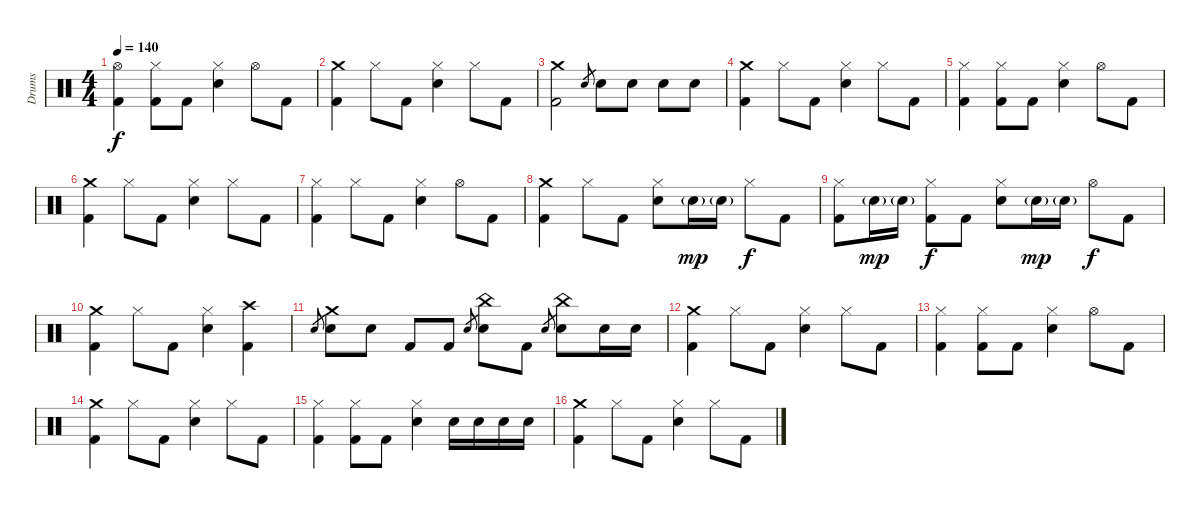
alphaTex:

\track ("Drums" "Drums") {instrument percussion}
\staff {score}
\articulation defaults
\ts (4 4)
\tempo 140
\clef neutral
\ks c
("Hi-Hat (open)" "Kick (hit) 2").4{dy f} ("Hi-Hat (closed)" "Kick (hit) 2").8 "Kick (hit) 2".8 ("Hi-Hat (closed)" "Snare (hit) 2").4 "Hi-Hat (open)".8 "Kick (hit) 2".8 |
("Crash medium (hit)" "Kick (hit) 2").4 "Hi-Hat (closed)".8 "Kick (hit) 2".8 ("Hi-Hat (closed)" "Snare (hit) 2").4 "Hi-Hat (closed)".8 "Kick (hit) 2".8 |
("Crash medium (hit)" "Kick (hit) 2").2 "Snare (hit) 2".8{gr} "Snare (hit) 2".8 "Snare (hit) 2".8 "Snare (hit) 2".8 "Snare (hit) 2".8 |
("Crash medium (hit)" "Kick (hit) 2").4 "Hi-Hat (closed)".8 "Kick (hit) 2".8 ("Hi-Hat (closed)" "Snare (hit) 2").4 "Hi-Hat (closed)".8 "Kick (hit) 2".8 |
("Hi-Hat (closed)" "Kick (hit) 2").4 ("Hi-Hat (closed)" "Kick (hit) 2").8 "Kick (hit) 2".8 ("Hi-Hat (closed)" "Snare (hit) 2").4 "Hi-Hat (open)".8 "Kick (hit) 2".8 |
("Crash medium (hit)" "Kick (hit) 2").4 "Hi-Hat (closed)".8 "Kick (hit) 2".8 ("Hi-Hat (closed)" "Snare (hit) 2").4 "Hi-Hat (closed)".8 "Kick (hit) 2".8 |
("Hi-Hat (closed)" "Kick (hit) 2").4 "Hi-Hat (closed)".8 "Kick (hit) 2".8 ("Hi-Hat (closed)" "Snare (hit) 2").4 "Hi-Hat (open)".8 "Kick (hit) 2".8 |
("Crash medium (hit)" "Kick (hit) 2").4 "Hi-Hat (closed)".8 "Kick (hit) 2".8 ("Hi-Hat (closed)" "Snare (hit) 2").8 "Snare (hit) 2"{g}.16{dy mp} "Snare (hit) 2"{g}.16 "Hi-Hat (closed)".8{dy f} "Kick (hit) 2".8 |
("Hi-Hat (closed)" "Kick (hit) 2").8 "Snare (hit) 2"{g}.16{dy mp} "Snare (hit) 2"{g}.16 ("Hi-Hat (closed)" "Kick (hit) 2").8{dy f} "Kick (hit) 2".8 ("Hi-Hat (closed)" "Snare (hit) 2").8 "Snare (hit) 2"{g}.16{dy mp} "Snare (hit) 2"{g}.16 "Hi-Hat (open)".8{dy f} "Kick (hit) 2".8 |
("Crash medium (hit)" "Kick (hit) 2").4 "Hi-Hat (closed)".8 "Kick (hit) 2".8 ("Hi-Hat (closed)" "Snare (hit) 2").4 ("Crash high (hit)" "Kick (hit) 2").4 |
"Snare (hit) 2".8{gr} ("Crash medium (hit)" "Snare (hit) 2").8 "Snare (hit) 2".8 "Kick (hit) 2".8 "Kick (hit) 2".8 "Snare (hit) 2".8{gr} ("China (hit)" "Snare (hit) 2").8 "Kick (hit) 2".8 "Snare (hit) 2".8{gr} ("China (hit)" "Snare (hit) 2").8 "Snare (hit) 2".16 "Snare (hit) 2".16 |
("Crash medium (hit)" "Kick (hit) 2").4 "Hi-Hat (closed)".8 "Kick (hit) 2".8 ("Hi-Hat (closed)" "Snare (hit) 2").4 "Hi-Hat (closed)".8 "Kick (hit) 2".8 |
("Hi-Hat (closed)" "Kick (hit) 2").4 ("Hi-Hat (closed)" "Kick (hit) 2").8 "Kick (hit) 2".8 ("Hi-Hat (closed)" "Snare (hit) 2").4 "Hi-Hat (open)".8 "Kick (hit) 2".8 |
("Crash medium (hit)" "Kick (hit) 2").4 "Hi-Hat (closed)".8 "Kick (hit) 2".8 ("Hi-Hat (closed)" "Snare (hit) 2").4 "Hi-Hat (closed)".8 "Kick (hit) 2".8 |
("Hi-Hat (closed)" "Kick (hit) 2").4 ("Hi-Hat (closed)" "Kick (hit) 2").8 "Kick (hit) 2".8 ("Hi-Hat (closed)" "Snare (hit) 2").4 "Snare (hit) 2".16 "Snare (hit) 2".16 "Snare (hit) 2".16 "Snare (hit) 2".16 |
("Crash medium (hit)" "Kick (hit) 2").4 "Hi-Hat (closed)".8 "Kick (hit) 2".8 ("Hi-Hat (closed)" "Snare (hit) 2").4 "Hi-Hat (closed)".8 "Kick (hit) 2".8
